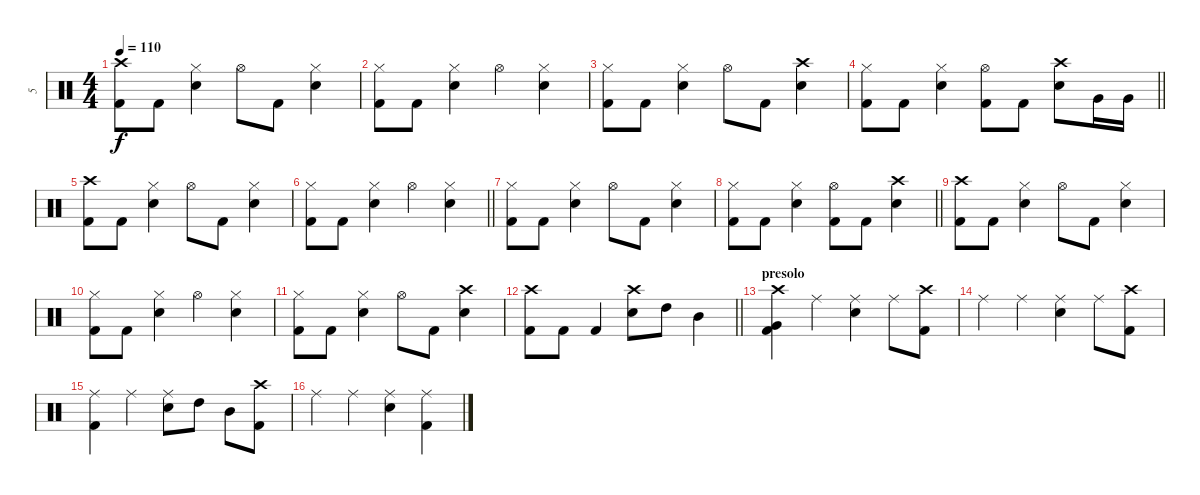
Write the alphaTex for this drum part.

\track ("5" "5") {instrument percussion}
\staff {score}
\articulation defaults
\ts (4 4)
\tempo 110
\clef neutral
\ks c
("Crash high (hit)" "Kick (hit) 2").8{dy f} "Kick (hit) 2".8 ("Hi-Hat (closed)" "Electric Snare (hit)").4 "Hi-Hat (open)".8 "Kick (hit) 2".8 ("Hi-Hat (closed)" "Electric Snare (hit)").4 |
("Hi-Hat (closed)" "Kick (hit) 2").8 "Kick (hit) 2".8 ("Hi-Hat (closed)" "Electric Snare (hit)").4 "Hi-Hat (open)".4 ("Hi-Hat (closed)" "Electric Snare (hit)").4 |
("Hi-Hat (closed)" "Kick (hit) 2").8 "Kick (hit) 2".8 ("Hi-Hat (closed)" "Electric Snare (hit)").4 "Hi-Hat (open)".8 "Kick (hit) 2".8 ("Crash high (hit)" "Electric Snare (hit)").4 |
\barLineRight lightlight
("Hi-Hat (closed)" "Kick (hit) 2").8 "Kick (hit) 2".8 ("Hi-Hat (closed)" "Electric Snare (hit)").4 ("Hi-Hat (open)" "Kick (hit) 2").8 "Kick (hit) 2".8 ("Crash high (hit)" "Electric Snare (hit)").8 "Very Low Tom (hit)".16 "Very Low Tom (hit)".16 |
("Crash high (hit)" "Kick (hit) 2").8 "Kick (hit) 2".8 ("Hi-Hat (closed)" "Electric Snare (hit)").4 "Hi-Hat (open)".8 "Kick (hit) 2".8 ("Hi-Hat (closed)" "Electric Snare (hit)").4 |
\barLineRight lightlight
("Hi-Hat (closed)" "Kick (hit) 2").8 "Kick (hit) 2".8 ("Hi-Hat (closed)" "Electric Snare (hit)").4 "Hi-Hat (open)".4 ("Hi-Hat (closed)" "Electric Snare (hit)").4 |
("Hi-Hat (closed)" "Kick (hit) 2").8 "Kick (hit) 2".8 ("Hi-Hat (closed)" "Electric Snare (hit)").4 "Hi-Hat (open)".8 "Kick (hit) 2".8 ("Hi-Hat (closed)" "Electric Snare (hit)").4 |
\barLineRight lightlight
("Hi-Hat (closed)" "Kick (hit) 2").8 "Kick (hit) 2".8 ("Hi-Hat (closed)" "Electric Snare (hit)").4 ("Hi-Hat (open)" "Kick (hit) 2").8 "Kick (hit) 2".8 ("Crash high (hit)" "Electric Snare (hit)").4 |
("Crash high (hit)" "Kick (hit) 2").8 "Kick (hit) 2".8 ("Hi-Hat (closed)" "Electric Snare (hit)").4 "Hi-Hat (open)".8 "Kick (hit) 2".8 ("Hi-Hat (closed)" "Electric Snare (hit)").4 |
("Hi-Hat (closed)" "Kick (hit) 2").8 "Kick (hit) 2".8 ("Hi-Hat (closed)" "Electric Snare (hit)").4 "Hi-Hat (open)".4 ("Hi-Hat (closed)" "Electric Snare (hit)").4 |
("Hi-Hat (closed)" "Kick (hit) 2").8 "Kick (hit) 2".8 ("Hi-Hat (closed)" "Electric Snare (hit)").4 "Hi-Hat (open)".8 "Kick (hit) 2".8 ("Crash high (hit)" "Electric Snare (hit)").4 |
\barLineRight lightlight
("Crash high (hit)" "Kick (hit) 2").8 "Kick (hit) 2".8 "Kick (hit) 2".4 ("Crash high (hit)" "Electric Snare (hit)").8 "High Tom (hit)".8 "Mid Tom (hit)".4 |
\section ("" "presolo")
("Crash high (hit)" "Very Low Tom (hit)" "Kick (hit) 2").4 "Ride (middle)".4 ("Ride (middle)" "Electric Snare (hit)").4 "Ride (middle)".8 ("Crash high (hit)" "Kick (hit) 2").8 |
"Ride (middle)".4 "Ride (middle)".4 ("Ride (middle)" "Electric Snare (hit)").4 "Ride (middle)".8 ("Crash high (hit)" "Kick (hit) 2").8 |
("Ride (middle)" "Kick (hit) 2").4 "Ride (middle)".4 ("Ride (middle)" "Electric Snare (hit)").8 "High Tom (hit)".8 "Mid Tom (hit)".8 ("Crash high (hit)" "Kick (hit) 2").8 |
"Ride (middle)".4 "Ride (middle)".4 ("Ride (middle)" "Electric Snare (hit)").4 ("Ride (middle)" "Kick (hit) 2").4
